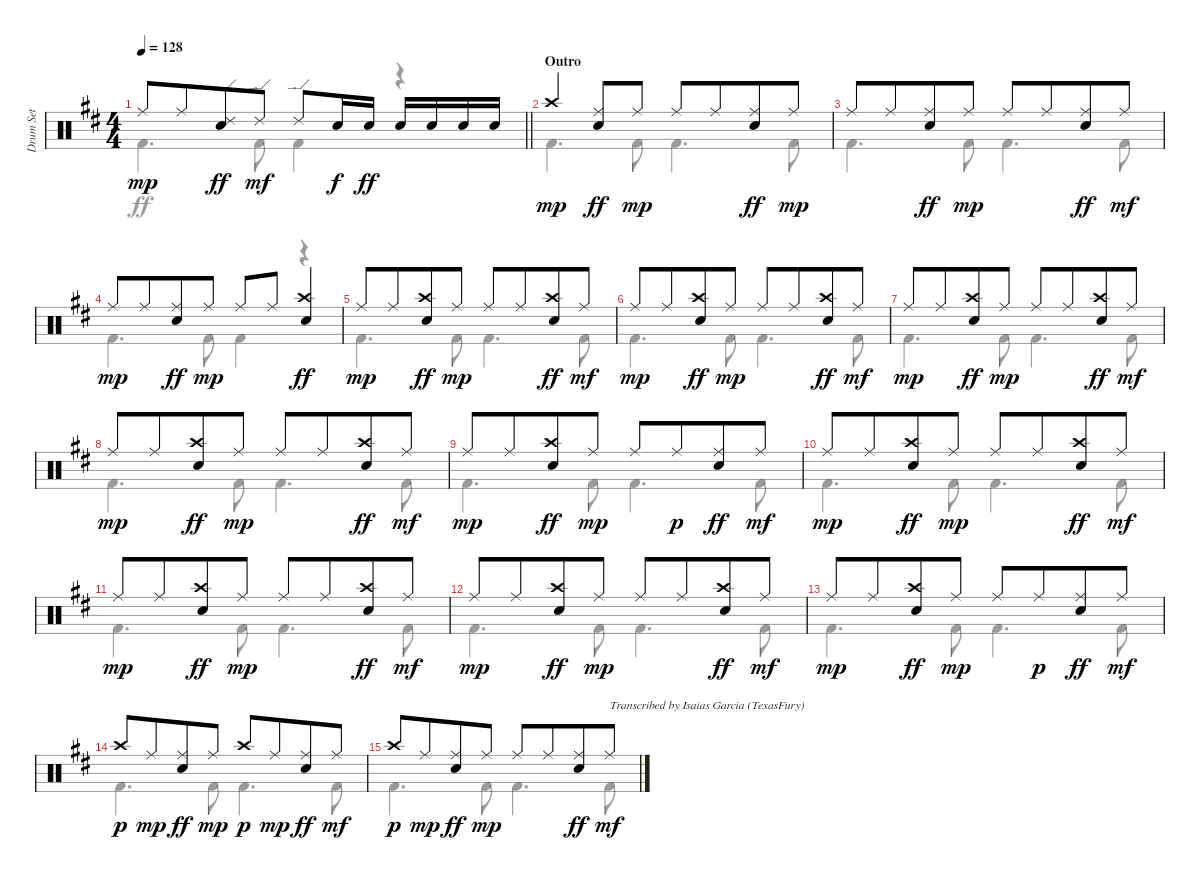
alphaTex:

\track ("Drum Set" "Drum Set") {instrument percussion}
\staff {score}
\articulation defaults
\voice
\ts (4 4)
\tempo 128
\clef neutral
\barLineRight lightlight
\ks bminor "Ride (middle)".8{dy mp} "Ride (middle)".8{beam merge}
("Ride (edge) 2" "Electric Snare (hit)").8{dy ff} "Ride (edge) 2".8{dy mf} "Ride (edge) 2".8 "Electric Snare (hit)".16{dy f} "Electric Snare (hit)".16{dy ff} "Electric Snare (hit)".16 "Electric Snare (hit)".16 "Electric Snare (hit)".16 "Electric Snare (hit)".16 |
\section ("" "Outro")
"Crash high (hit)".4{dy mp} ("Ride (middle)" "Electric Snare (hit)").8{dy ff} "Ride (middle)".8{dy mp} "Ride (middle)".8 "Ride (middle)".8{beam merge} ("Ride (middle)" "Electric Snare (hit)").8{dy ff} "Ride (middle)".8{dy mp} |
"Ride (middle)".8 "Ride (middle)".8{beam merge} ("Ride (middle)" "Electric Snare (hit)").8{dy ff} "Ride (middle)".8{dy mp} "Ride (middle)".8 "Ride (middle)".8{beam merge} ("Ride (middle)" "Electric Snare (hit)").8{dy ff} "Ride (middle)".8{dy mf} |
"Ride (middle)".8{dy mp} "Ride (middle)".8{beam merge} ("Ride (middle)" "Electric Snare (hit)").8{dy ff} "Ride (middle)".8{dy mp} "Ride (middle)".8 "Ride (middle)".8{beam merge} ("Crash high (hit)" "Electric Snare (hit)").4{dy ff} |
"Ride (middle)".8{dy mp volume 8} "Ride (middle)".8{beam merge} ("Crash high (hit)" "Electric Snare (hit)").8{dy ff} "Ride (middle)".8{dy mp} "Ride (middle)".8 "Ride (middle)".8{beam merge} ("Crash high (hit)" "Electric Snare (hit)").8{dy ff} "Ride (middle)".8{dy mf} |
"Ride (middle)".8{dy mp} "Ride (middle)".8{beam merge} ("Crash high (hit)" "Electric Snare (hit)").8{dy ff} "Ride (middle)".8{dy mp} "Ride (middle)".8 "Ride (middle)".8{beam merge} ("Crash high (hit)" "Electric Snare (hit)").8{dy ff} "Ride (middle)".8{dy mf} |
"Ride (middle)".8{dy mp} "Ride (middle)".8{beam merge} ("Crash high (hit)" "Electric Snare (hit)").8{dy ff} "Ride (middle)".8{dy mp} "Ride (middle)".8 "Ride (middle)".8{beam merge} ("Crash high (hit)" "Electric Snare (hit)").8{dy ff} "Ride (middle)".8{dy mf} |
"Ride (middle)".8{dy mp} "Ride (middle)".8{beam merge} ("Crash high (hit)" "Electric Snare (hit)").8{dy ff} "Ride (middle)".8{dy mp} "Ride (middle)".8 "Ride (middle)".8{beam merge} ("Crash high (hit)" "Electric Snare (hit)").8{dy ff volume 4} "Ride (middle)".8{dy mf} |
"Ride (middle)".8{dy mp} "Ride (middle)".8{beam merge} ("Crash high (hit)" "Electric Snare (hit)").8{dy ff} "Ride (middle)".8{dy mp} "Ride (middle)".8 "Ride (middle)".8{dy p beam merge} ("Ride (middle)" "Electric Snare (hit)").8{dy ff} "Ride (middle)".8{dy mf} |
"Ride (middle)".8{dy mp} "Ride (middle)".8{beam merge} ("Crash high (hit)" "Electric Snare (hit)").8{dy ff} "Ride (middle)".8{dy mp} "Ride (middle)".8 "Ride (middle)".8{beam merge} ("Crash high (hit)" "Electric Snare (hit)").8{dy ff} "Ride (middle)".8{dy mf} |
"Ride (middle)".8{dy mp} "Ride (middle)".8{beam merge} ("Crash high (hit)" "Electric Snare (hit)").8{dy ff} "Ride (middle)".8{dy mp} "Ride (middle)".8 "Ride (middle)".8{beam merge} ("Crash high (hit)" "Electric Snare (hit)").8{dy ff} "Ride (middle)".8{dy mf} |
"Ride (middle)".8{dy mp} "Ride (middle)".8{beam merge} ("Crash high (hit)" "Electric Snare (hit)").8{dy ff} "Ride (middle)".8{dy mp} "Ride (middle)".8{volume 0} "Ride (middle)".8{beam merge} ("Crash high (hit)" "Electric Snare (hit)").8{dy ff} "Ride (middle)".8{dy mf} |
"Ride (middle)".8{dy mp} "Ride (middle)".8{beam merge} ("Crash high (hit)" "Electric Snare (hit)").8{dy ff} "Ride (middle)".8{dy mp} "Ride (middle)".8 "Ride (middle)".8{dy p beam merge} ("Ride (middle)" "Electric Snare (hit)").8{dy ff} "Ride (middle)".8{dy mf} |
"Crash high (hit)".8{dy p} "Ride (middle)".8{dy mp beam merge} ("Ride (middle)" "Electric Snare (hit)").8{dy ff} "Ride (middle)".8{dy mp} "Crash high (hit)".8{dy p} "Ride (middle)".8{dy mp beam merge} ("Ride (middle)" "Electric Snare (hit)").8{dy ff} "Ride (middle)".8{dy mf} |
"Crash high (hit)".8{dy p} "Ride (middle)".8{dy mp beam merge} ("Ride (middle)" "Electric Snare (hit)").8{dy ff} "Ride (middle)".8{dy mp} "Ride (middle)".8 "Ride (middle)".8{beam merge} ("Ride (middle)" "Electric Snare (hit)").8{dy ff} "Ride (middle)".8{txt "Transcribed by Isaias Garcia (TexasFury)" dy mf}
\voice
\clef neutral
\ottava regular
\simile none
\barLineRight lightlight
\ks bminor "Kick (hit) 2".4{d dy ff} "Kick (hit) 2".8 "Kick (hit) 2".4
r.4 |
"Kick (hit) 2".4{d} "Kick (hit) 2".8 "Kick (hit) 2".4{d} "Kick (hit) 2".8 |
"Kick (hit) 2".4{d} "Kick (hit) 2".8 "Kick (hit) 2".4{d} "Kick (hit) 2".8 |
"Kick (hit) 2".4{d} "Kick (hit) 2".8 "Kick (hit) 2".4 r.4 |
"Kick (hit) 2".4{d} "Kick (hit) 2".8 "Kick (hit) 2".4{d} "Kick (hit) 2".8 |
"Kick (hit) 2".4{d} "Kick (hit) 2".8 "Kick (hit) 2".4{d} "Kick (hit) 2".8 |
"Kick (hit) 2".4{d} "Kick (hit) 2".8 "Kick (hit) 2".4{d} "Kick (hit) 2".8 |
"Kick (hit) 2".4{d} "Kick (hit) 2".8 "Kick (hit) 2".4{d} "Kick (hit) 2".8 |
"Kick (hit) 2".4{d} "Kick (hit) 2".8 "Kick (hit) 2".4{d} "Kick (hit) 2".8 |
"Kick (hit) 2".4{d} "Kick (hit) 2".8 "Kick (hit) 2".4{d} "Kick (hit) 2".8 |
"Kick (hit) 2".4{d} "Kick (hit) 2".8 "Kick (hit) 2".4{d} "Kick (hit) 2".8 |
"Kick (hit) 2".4{d} "Kick (hit) 2".8 "Kick (hit) 2".4{d} "Kick (hit) 2".8 |
"Kick (hit) 2".4{d} "Kick (hit) 2".8 "Kick (hit) 2".4{d} "Kick (hit) 2".8 |
"Kick (hit) 2".4{d} "Kick (hit) 2".8 "Kick (hit) 2".4{d} "Kick (hit) 2".8 |
"Kick (hit) 2".4{d} "Kick (hit) 2".8 "Kick (hit) 2".4{d} "Kick (hit) 2".8
